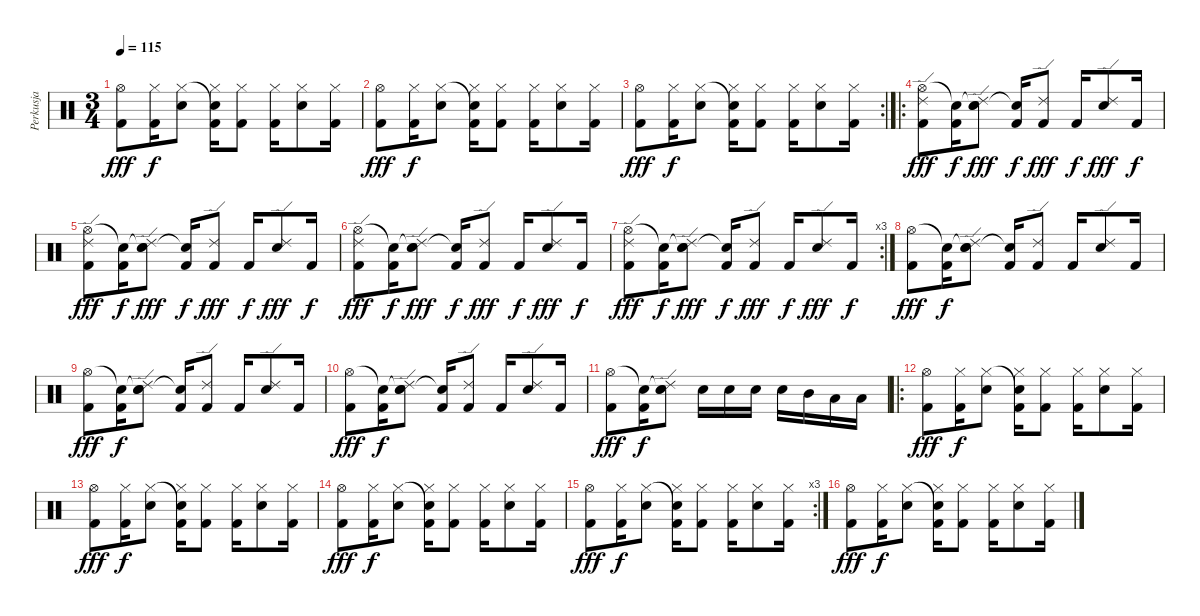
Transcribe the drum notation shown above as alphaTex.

\track ("Perkusja" "Perkusja") {instrument percussion}
\staff {score}
\articulation defaults
\ts (3 4)
\tempo 115
\clef neutral
\ks c
("Hi-Hat (open)" "Kick (hit) 2").8{dy fff} ("Hi-Hat (closed)" "Kick (hit) 2").16{dy f} ("Hi-Hat (closed)" "Snare (hit) 2").8 ("Snare (hit)"{t} "Hi-Hat (closed)" "Kick (hit) 2").16 ("Hi-Hat (closed)" "Kick (hit) 2").8 ("Hi-Hat (closed)" "Kick (hit) 2").16 ("Hi-Hat (closed)" "Snare (hit) 2").8 ("Hi-Hat (closed)" "Kick (hit) 2").16 |
("Hi-Hat (open)" "Kick (hit) 2").8{dy fff} ("Hi-Hat (closed)" "Kick (hit) 2").16{dy f} ("Hi-Hat (closed)" "Snare (hit) 2").8 ("Snare (hit)"{t} "Hi-Hat (closed)" "Kick (hit) 2").16 ("Hi-Hat (closed)" "Kick (hit) 2").8 ("Hi-Hat (closed)" "Kick (hit) 2").16 ("Hi-Hat (closed)" "Snare (hit) 2").8 ("Hi-Hat (closed)" "Kick (hit) 2").16 |
\rc 2
("Hi-Hat (open)" "Kick (hit) 2").8{dy fff} ("Hi-Hat (closed)" "Kick (hit) 2").16{dy f} ("Hi-Hat (closed)" "Snare (hit) 2").8 ("Snare (hit)"{t} "Hi-Hat (closed)" "Kick (hit) 2").16 ("Hi-Hat (closed)" "Kick (hit) 2").8 ("Hi-Hat (closed)" "Kick (hit) 2").16 ("Hi-Hat (closed)" "Snare (hit) 2").8 ("Hi-Hat (closed)" "Kick (hit) 2").16 |
\ro
("Hi-Hat (open)" "Ride (edge) 2" "Kick (hit) 2").8{dy fff} ("Snare (hit)"{t} "Kick (hit) 2").16{dy f} ("Snare (hit)"{t} "Ride (edge) 2" "Snare (hit) 2").8{dy fff} ("Snare (hit)"{t} "Kick (hit) 2").16{dy f} ("Ride (edge) 2" "Kick (hit) 2").8{dy fff} "Kick (hit) 2".16{dy f} ("Ride (edge) 2" "Snare (hit) 2").8{dy fff} "Kick (hit) 2".16{dy f} |
("Hi-Hat (open)" "Ride (edge) 2" "Kick (hit) 2").8{dy fff} ("Snare (hit)"{t} "Kick (hit) 2").16{dy f} ("Snare (hit)"{t} "Ride (edge) 2" "Snare (hit) 2").8{dy fff} ("Snare (hit)"{t} "Kick (hit) 2").16{dy f} ("Ride (edge) 2" "Kick (hit) 2").8{dy fff} "Kick (hit) 2".16{dy f} ("Ride (edge) 2" "Snare (hit) 2").8{dy fff} "Kick (hit) 2".16{dy f} |
("Hi-Hat (open)" "Ride (edge) 2" "Kick (hit) 2").8{dy fff} ("Snare (hit)"{t} "Kick (hit) 2").16{dy f} ("Snare (hit)"{t} "Ride (edge) 2" "Snare (hit) 2").8{dy fff} ("Snare (hit)"{t} "Kick (hit) 2").16{dy f} ("Ride (edge) 2" "Kick (hit) 2").8{dy fff} "Kick (hit) 2".16{dy f} ("Ride (edge) 2" "Snare (hit) 2").8{dy fff} "Kick (hit) 2".16{dy f} |
\rc 3
("Hi-Hat (open)" "Ride (edge) 2" "Kick (hit) 2").8{dy fff} ("Snare (hit)"{t} "Kick (hit) 2").16{dy f} ("Snare (hit)"{t} "Ride (edge) 2" "Snare (hit) 2").8{dy fff} ("Snare (hit)"{t} "Kick (hit) 2").16{dy f} ("Ride (edge) 2" "Kick (hit) 2").8{dy fff} "Kick (hit) 2".16{dy f} ("Ride (edge) 2" "Snare (hit) 2").8{dy fff} "Kick (hit) 2".16{dy f} |
("Hi-Hat (open)" "Kick (hit) 2").8{dy fff} ("Snare (hit)"{t} "Kick (hit) 2").16{dy f} ("Snare (hit)"{t} "Ride (edge) 2" "Snare (hit) 2").8 ("Snare (hit)"{t} "Kick (hit) 2").16 ("Ride (edge) 2" "Kick (hit) 2").8 "Kick (hit) 2".16 ("Ride (edge) 2" "Snare (hit) 2").8 "Kick (hit) 2".16 |
("Hi-Hat (open)" "Kick (hit) 2").8{dy fff} ("Snare (hit)"{t} "Kick (hit) 2").16{dy f} ("Snare (hit)"{t} "Ride (edge) 2" "Snare (hit) 2").8 ("Snare (hit)"{t} "Kick (hit) 2").16 ("Ride (edge) 2" "Kick (hit) 2").8 "Kick (hit) 2".16 ("Ride (edge) 2" "Snare (hit) 2").8 "Kick (hit) 2".16 |
("Hi-Hat (open)" "Kick (hit) 2").8{dy fff} ("Snare (hit)"{t} "Kick (hit) 2").16{dy f} ("Snare (hit)"{t} "Ride (edge) 2" "Snare (hit) 2").8 ("Snare (hit)"{t} "Kick (hit) 2").16 ("Ride (edge) 2" "Kick (hit) 2").8 "Kick (hit) 2".16 ("Ride (edge) 2" "Snare (hit) 2").8 "Kick (hit) 2".16 |
("Hi-Hat (open)" "Kick (hit) 2").8{dy fff} ("Snare (hit)"{t} "Kick (hit) 2").16{dy f} ("Snare (hit)"{t} "Ride (edge) 2" "Snare (hit) 2").8 "Snare (hit) 2".16 "Snare (hit) 2".16 "Snare (hit) 2".16 "Snare (hit) 2".16 "Mid Tom (hit)".16 "Low Tom (hit)".16 "Low Tom (hit)".16 |
\ro
("Hi-Hat (open)" "Kick (hit) 2").8{dy fff} ("Hi-Hat (closed)" "Kick (hit) 2").16{dy f} ("Hi-Hat (closed)" "Snare (hit) 2").8 ("Snare (hit)"{t} "Hi-Hat (closed)" "Kick (hit) 2").16 ("Hi-Hat (closed)" "Kick (hit) 2").8 ("Hi-Hat (closed)" "Kick (hit) 2").16 ("Hi-Hat (closed)" "Snare (hit) 2").8 ("Hi-Hat (closed)" "Kick (hit) 2").16 |
("Hi-Hat (open)" "Kick (hit) 2").8{dy fff} ("Hi-Hat (closed)" "Kick (hit) 2").16{dy f} ("Hi-Hat (closed)" "Snare (hit) 2").8 ("Snare (hit)"{t} "Hi-Hat (closed)" "Kick (hit) 2").16 ("Hi-Hat (closed)" "Kick (hit) 2").8 ("Hi-Hat (closed)" "Kick (hit) 2").16 ("Hi-Hat (closed)" "Snare (hit) 2").8 ("Hi-Hat (closed)" "Kick (hit) 2").16 |
("Hi-Hat (open)" "Kick (hit) 2").8{dy fff} ("Hi-Hat (closed)" "Kick (hit) 2").16{dy f} ("Hi-Hat (closed)" "Snare (hit) 2").8 ("Snare (hit)"{t} "Hi-Hat (closed)" "Kick (hit) 2").16 ("Hi-Hat (closed)" "Kick (hit) 2").8 ("Hi-Hat (closed)" "Kick (hit) 2").16 ("Hi-Hat (closed)" "Snare (hit) 2").8 ("Hi-Hat (closed)" "Kick (hit) 2").16 |
\rc 3
("Hi-Hat (open)" "Kick (hit) 2").8{dy fff} ("Hi-Hat (closed)" "Kick (hit) 2").16{dy f} ("Hi-Hat (closed)" "Snare (hit) 2").8 ("Snare (hit)"{t} "Hi-Hat (closed)" "Kick (hit) 2").16 ("Hi-Hat (closed)" "Kick (hit) 2").8 ("Hi-Hat (closed)" "Kick (hit) 2").16 ("Hi-Hat (closed)" "Snare (hit) 2").8 ("Hi-Hat (closed)" "Kick (hit) 2").16 |
("Hi-Hat (open)" "Kick (hit) 2").8{dy fff} ("Hi-Hat (closed)" "Kick (hit) 2").16{dy f} ("Hi-Hat (closed)" "Snare (hit) 2").8 ("Snare (hit)"{t} "Hi-Hat (closed)" "Kick (hit) 2").16 ("Hi-Hat (closed)" "Kick (hit) 2").8 ("Hi-Hat (closed)" "Kick (hit) 2").16 ("Hi-Hat (closed)" "Snare (hit) 2").8 ("Hi-Hat (closed)" "Kick (hit) 2").16
